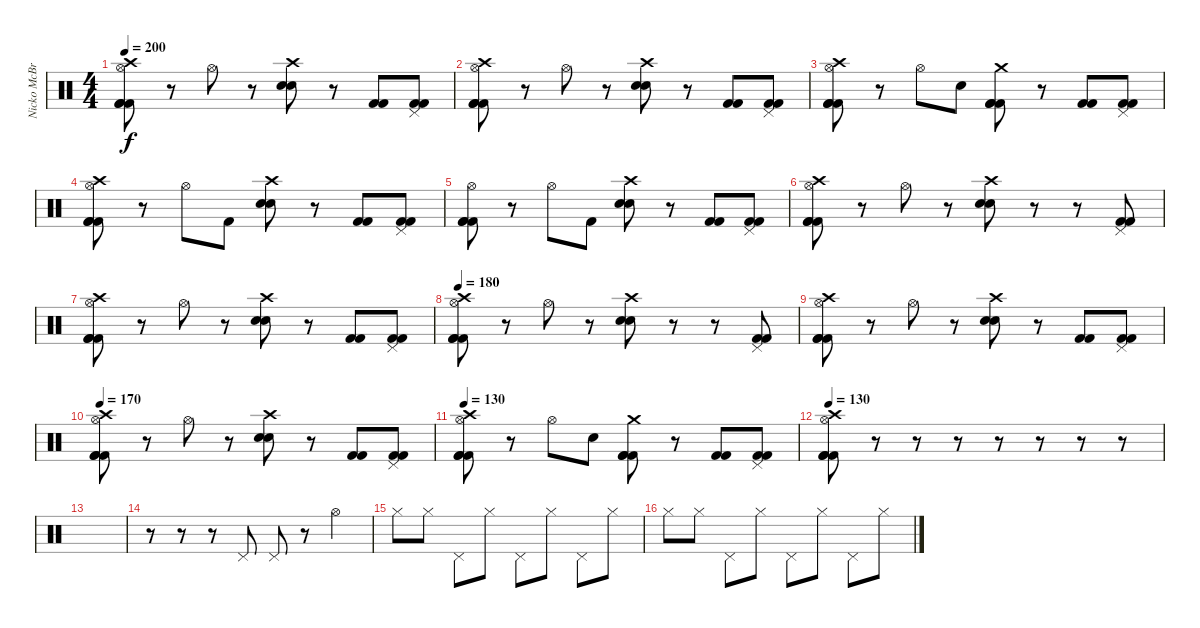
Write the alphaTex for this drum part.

\track ("Nicko McBrain" "Nicko McBr") {instrument percussion}
\staff {score}
\articulation defaults
\ts (4 4)
\tempo 200
\clef neutral
\ks c
("Crash high (hit)" "Hi-Hat (open)" "Kick (hit) 2" "Kick (hit) 2" "Kick (hit) 2").8{dy f} r.8 "Hi-Hat (open)".8 r.8 ("Crash high (hit)" "Snare (hit) 2" "Snare (hit) 2").8 r.8 ("Kick (hit) 2" "Kick (hit) 2").8 ("Pedal Hi-Hat (hit)" "Kick (hit) 2" "Kick (hit) 2").8 |
("Crash high (hit)" "Hi-Hat (open)" "Kick (hit) 2" "Kick (hit) 2" "Kick (hit) 2").8 r.8 "Hi-Hat (open)".8 r.8 ("Crash high (hit)" "Snare (hit) 2" "Snare (hit) 2").8 r.8 ("Kick (hit) 2" "Kick (hit) 2").8 ("Pedal Hi-Hat (hit)" "Kick (hit) 2" "Kick (hit) 2").8 |
("Crash high (hit)" "Hi-Hat (open)" "Kick (hit) 2" "Kick (hit) 2" "Kick (hit) 2").8 r.8 "Hi-Hat (open)".8 "Snare (hit) 2".8 ("Crash medium (hit)" "Kick (hit) 2" "Kick (hit) 2" "Kick (hit) 2").8 r.8 ("Kick (hit) 2" "Kick (hit) 2").8 ("Pedal Hi-Hat (hit)" "Kick (hit) 2" "Kick (hit) 2").8 |
("Crash high (hit)" "Hi-Hat (open)" "Kick (hit) 2" "Kick (hit) 2" "Kick (hit) 2").8 r.8 "Hi-Hat (open)".8 "Kick (hit) 2".8 ("Crash high (hit)" "Snare (hit) 2" "Snare (hit) 2").8 r.8 ("Kick (hit) 2" "Kick (hit) 2").8 ("Pedal Hi-Hat (hit)" "Kick (hit) 2" "Kick (hit) 2").8 |
("Hi-Hat (open)" "Kick (hit) 2" "Kick (hit) 2" "Kick (hit) 2").8 r.8 "Hi-Hat (open)".8 "Kick (hit) 2".8 ("Crash high (hit)" "Snare (hit) 2" "Snare (hit) 2").8 r.8 ("Kick (hit) 2" "Kick (hit) 2").8 ("Pedal Hi-Hat (hit)" "Kick (hit) 2" "Kick (hit) 2").8 |
("Crash high (hit)" "Hi-Hat (open)" "Kick (hit) 2" "Kick (hit) 2" "Kick (hit) 2").8 r.8 "Hi-Hat (open)".8 r.8 ("Crash high (hit)" "Snare (hit) 2" "Snare (hit) 2").8 r.8 r.8 ("Pedal Hi-Hat (hit)" "Kick (hit) 2" "Kick (hit) 2").8 |
("Crash high (hit)" "Hi-Hat (open)" "Kick (hit) 2" "Kick (hit) 2" "Kick (hit) 2").8 r.8 "Hi-Hat (open)".8 r.8 ("Crash high (hit)" "Snare (hit) 2" "Snare (hit) 2").8 r.8 ("Kick (hit) 2" "Kick (hit) 2").8 ("Pedal Hi-Hat (hit)" "Kick (hit) 2" "Kick (hit) 2").8 |
\tempo 180
("Crash high (hit)" "Hi-Hat (open)" "Kick (hit) 2" "Kick (hit) 2" "Kick (hit) 2").8 r.8 "Hi-Hat (open)".8 r.8 ("Crash high (hit)" "Snare (hit) 2" "Snare (hit) 2").8 r.8 r.8 ("Pedal Hi-Hat (hit)" "Kick (hit) 2" "Kick (hit) 2").8 |
("Crash high (hit)" "Hi-Hat (open)" "Kick (hit) 2" "Kick (hit) 2" "Kick (hit) 2").8 r.8 "Hi-Hat (open)".8 r.8 ("Crash high (hit)" "Snare (hit) 2" "Snare (hit) 2").8 r.8 ("Kick (hit) 2" "Kick (hit) 2").8 ("Pedal Hi-Hat (hit)" "Kick (hit) 2" "Kick (hit) 2").8 |
\tempo 170
("Crash high (hit)" "Hi-Hat (open)" "Kick (hit) 2" "Kick (hit) 2" "Kick (hit) 2").8 r.8 "Hi-Hat (open)".8 r.8 ("Crash high (hit)" "Snare (hit) 2" "Snare (hit) 2").8 r.8 ("Kick (hit) 2" "Kick (hit) 2").8 ("Pedal Hi-Hat (hit)" "Kick (hit) 2" "Kick (hit) 2").8 |
\tempo 130
("Crash high (hit)" "Hi-Hat (open)" "Kick (hit) 2" "Kick (hit) 2" "Kick (hit) 2").8 r.8 "Hi-Hat (open)".8 "Snare (hit) 2".8 ("Crash medium (hit)" "Kick (hit) 2" "Kick (hit) 2" "Kick (hit) 2").8 r.8 ("Kick (hit) 2" "Kick (hit) 2").8 ("Pedal Hi-Hat (hit)" "Kick (hit) 2" "Kick (hit) 2").8 |
\tempo 130
("Crash high (hit)" "Hi-Hat (open)" "Kick (hit) 2" "Kick (hit) 2" "Kick (hit) 2").8 r.8 r.8 r.8 r.8 r.8 r.8 r.8 |
|
r.8 r.8 r.8 "Pedal Hi-Hat (hit)".8 "Pedal Hi-Hat (hit)".8 r.8 "Hi-Hat (open)".4 |
"Hi-Hat (closed)".8 "Hi-Hat (closed)".8 "Pedal Hi-Hat (hit)".8 "Hi-Hat (closed)".8 "Pedal Hi-Hat (hit)".8 "Hi-Hat (closed)".8 "Pedal Hi-Hat (hit)".8 "Hi-Hat (closed)".8 |
"Hi-Hat (closed)".8 "Hi-Hat (closed)".8 "Pedal Hi-Hat (hit)".8 "Hi-Hat (closed)".8 "Pedal Hi-Hat (hit)".8 "Hi-Hat (closed)".8 "Pedal Hi-Hat (hit)".8 "Hi-Hat (closed)".8
